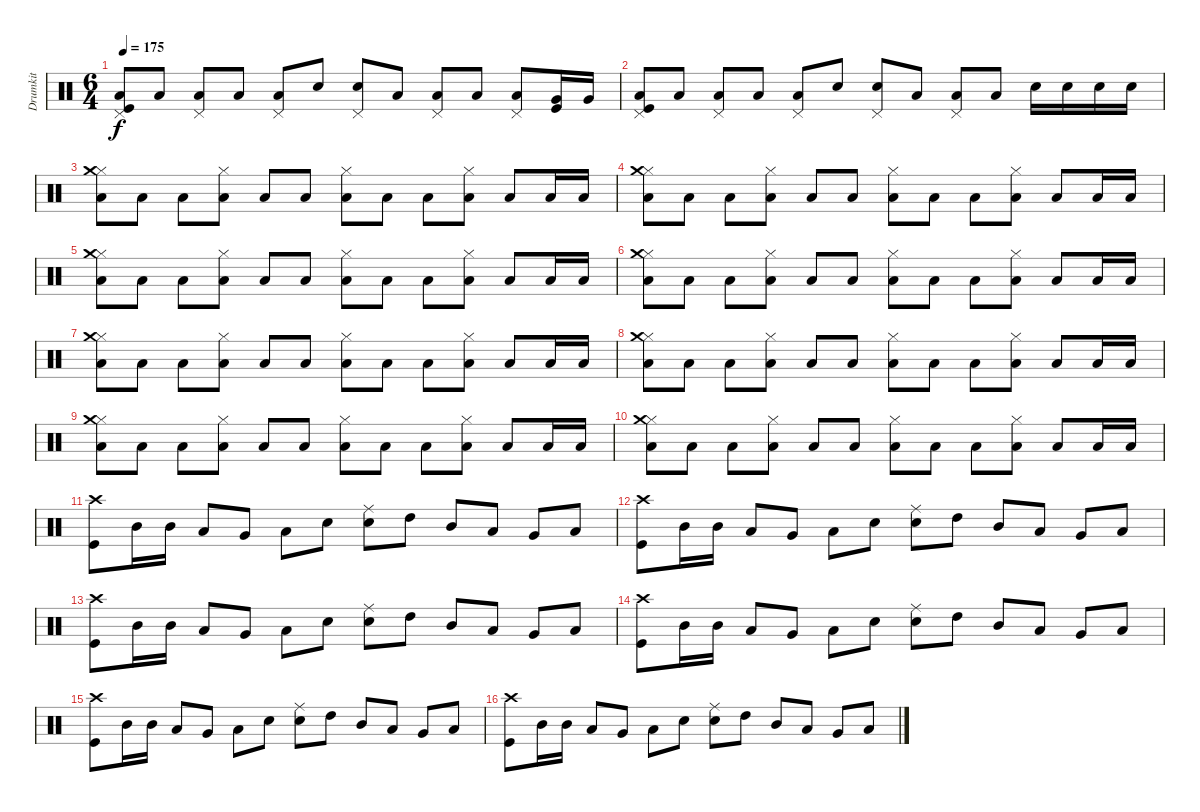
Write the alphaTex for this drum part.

\track ("Drumkit" "Drumkit") {instrument percussion}
\staff {score}
\articulation defaults
\ts (6 4)
\tempo 175
\clef neutral
\ks c
("Low Floor Tom (hit)" "Kick (hit)" "Pedal Hi-Hat (hit)").8{dy f} "Low Floor Tom (hit)".8 ("Low Floor Tom (hit)" "Pedal Hi-Hat (hit)").8 "Low Floor Tom (hit)".8 ("Low Floor Tom (hit)" "Pedal Hi-Hat (hit)").8 "Snare (hit) 2".8 ("Snare (hit) 2" "Pedal Hi-Hat (hit)").8 "Low Floor Tom (hit)".8 ("Low Floor Tom (hit)" "Pedal Hi-Hat (hit)").8 "Low Floor Tom (hit)".8 ("Low Floor Tom (hit)" "Pedal Hi-Hat (hit)").8 ("Very Low Tom (hit)" "Kick (hit)").16 "Very Low Tom (hit)".16 |
("Low Floor Tom (hit)" "Kick (hit)" "Pedal Hi-Hat (hit)").8 "Low Floor Tom (hit)".8 ("Low Floor Tom (hit)" "Pedal Hi-Hat (hit)").8 "Low Floor Tom (hit)".8 ("Low Floor Tom (hit)" "Pedal Hi-Hat (hit)").8 "Snare (hit) 2".8 ("Snare (hit) 2" "Pedal Hi-Hat (hit)").8 "Low Floor Tom (hit)".8 ("Low Floor Tom (hit)" "Pedal Hi-Hat (hit)").8 "Low Floor Tom (hit)".8 "Snare (hit) 2".16 "Snare (hit) 2".16 "Snare (hit) 2".16 "Snare (hit) 2".16 |
("Low Floor Tom (hit)" "Hi-Hat (closed)" "Crash medium (hit)").8 "Low Floor Tom (hit)".8 "Low Floor Tom (hit)".8 ("Low Floor Tom (hit)" "Hi-Hat (closed)").8 "Low Floor Tom (hit)".8 "Low Floor Tom (hit)".8 ("Low Floor Tom (hit)" "Hi-Hat (closed)").8 "Low Floor Tom (hit)".8 "Low Floor Tom (hit)".8 ("Low Floor Tom (hit)" "Hi-Hat (closed)").8 "Low Floor Tom (hit)".8 "Low Floor Tom (hit)".16 "Low Floor Tom (hit)".16 |
("Low Floor Tom (hit)" "Hi-Hat (closed)" "Crash medium (hit)").8 "Low Floor Tom (hit)".8 "Low Floor Tom (hit)".8 ("Low Floor Tom (hit)" "Hi-Hat (closed)").8 "Low Floor Tom (hit)".8 "Low Floor Tom (hit)".8 ("Low Floor Tom (hit)" "Hi-Hat (closed)").8 "Low Floor Tom (hit)".8 "Low Floor Tom (hit)".8 ("Low Floor Tom (hit)" "Hi-Hat (closed)").8 "Low Floor Tom (hit)".8 "Low Floor Tom (hit)".16 "Low Floor Tom (hit)".16 |
("Low Floor Tom (hit)" "Hi-Hat (closed)" "Crash medium (hit)").8 "Low Floor Tom (hit)".8 "Low Floor Tom (hit)".8 ("Low Floor Tom (hit)" "Hi-Hat (closed)").8 "Low Floor Tom (hit)".8 "Low Floor Tom (hit)".8 ("Low Floor Tom (hit)" "Hi-Hat (closed)").8 "Low Floor Tom (hit)".8 "Low Floor Tom (hit)".8 ("Low Floor Tom (hit)" "Hi-Hat (closed)").8 "Low Floor Tom (hit)".8 "Low Floor Tom (hit)".16 "Low Floor Tom (hit)".16 |
("Low Floor Tom (hit)" "Hi-Hat (closed)" "Crash medium (hit)").8 "Low Floor Tom (hit)".8 "Low Floor Tom (hit)".8 ("Low Floor Tom (hit)" "Hi-Hat (closed)").8 "Low Floor Tom (hit)".8 "Low Floor Tom (hit)".8 ("Low Floor Tom (hit)" "Hi-Hat (closed)").8 "Low Floor Tom (hit)".8 "Low Floor Tom (hit)".8 ("Low Floor Tom (hit)" "Hi-Hat (closed)").8 "Low Floor Tom (hit)".8 "Low Floor Tom (hit)".16 "Low Floor Tom (hit)".16 |
("Low Floor Tom (hit)" "Hi-Hat (closed)" "Crash medium (hit)").8 "Low Floor Tom (hit)".8 "Low Floor Tom (hit)".8 ("Low Floor Tom (hit)" "Hi-Hat (closed)").8 "Low Floor Tom (hit)".8 "Low Floor Tom (hit)".8 ("Low Floor Tom (hit)" "Hi-Hat (closed)").8 "Low Floor Tom (hit)".8 "Low Floor Tom (hit)".8 ("Low Floor Tom (hit)" "Hi-Hat (closed)").8 "Low Floor Tom (hit)".8 "Low Floor Tom (hit)".16 "Low Floor Tom (hit)".16 |
("Low Floor Tom (hit)" "Hi-Hat (closed)" "Crash medium (hit)").8 "Low Floor Tom (hit)".8 "Low Floor Tom (hit)".8 ("Low Floor Tom (hit)" "Hi-Hat (closed)").8 "Low Floor Tom (hit)".8 "Low Floor Tom (hit)".8 ("Low Floor Tom (hit)" "Hi-Hat (closed)").8 "Low Floor Tom (hit)".8 "Low Floor Tom (hit)".8 ("Low Floor Tom (hit)" "Hi-Hat (closed)").8 "Low Floor Tom (hit)".8 "Low Floor Tom (hit)".16 "Low Floor Tom (hit)".16 |
("Low Floor Tom (hit)" "Hi-Hat (closed)" "Crash medium (hit)").8 "Low Floor Tom (hit)".8 "Low Floor Tom (hit)".8 ("Low Floor Tom (hit)" "Hi-Hat (closed)").8 "Low Floor Tom (hit)".8 "Low Floor Tom (hit)".8 ("Low Floor Tom (hit)" "Hi-Hat (closed)").8 "Low Floor Tom (hit)".8 "Low Floor Tom (hit)".8 ("Low Floor Tom (hit)" "Hi-Hat (closed)").8 "Low Floor Tom (hit)".8 "Low Floor Tom (hit)".16 "Low Floor Tom (hit)".16 |
("Low Floor Tom (hit)" "Hi-Hat (closed)" "Crash medium (hit)").8 "Low Floor Tom (hit)".8 "Low Floor Tom (hit)".8 ("Low Floor Tom (hit)" "Hi-Hat (closed)").8 "Low Floor Tom (hit)".8 "Low Floor Tom (hit)".8 ("Low Floor Tom (hit)" "Hi-Hat (closed)").8 "Low Floor Tom (hit)".8 "Low Floor Tom (hit)".8 ("Low Floor Tom (hit)" "Hi-Hat (closed)").8 "Low Floor Tom (hit)".8 "Low Floor Tom (hit)".16 "Low Floor Tom (hit)".16 |
("Kick (hit)" "Crash high (hit)").8 "Mid Tom (hit)".16 "Mid Tom (hit)".16 "Low Tom (hit)".8 "Very Low Tom (hit)".8 "Low Floor Tom (hit)".8 "Snare (hit) 2".8 ("Snare (hit) 2" "Ride (middle)").8 "High Tom (hit)".8 "Mid Tom (hit)".8 "Low Tom (hit)".8 "Very Low Tom (hit)".8 "Low Floor Tom (hit)".8 |
("Kick (hit)" "Crash high (hit)").8 "Mid Tom (hit)".16 "Mid Tom (hit)".16 "Low Tom (hit)".8 "Very Low Tom (hit)".8 "Low Floor Tom (hit)".8 "Snare (hit) 2".8 ("Snare (hit) 2" "Ride (middle)").8 "High Tom (hit)".8 "Mid Tom (hit)".8 "Low Tom (hit)".8 "Very Low Tom (hit)".8 "Low Floor Tom (hit)".8 |
("Kick (hit)" "Crash high (hit)").8 "Mid Tom (hit)".16 "Mid Tom (hit)".16 "Low Tom (hit)".8 "Very Low Tom (hit)".8 "Low Floor Tom (hit)".8 "Snare (hit) 2".8 ("Snare (hit) 2" "Ride (middle)").8 "High Tom (hit)".8 "Mid Tom (hit)".8 "Low Tom (hit)".8 "Very Low Tom (hit)".8 "Low Floor Tom (hit)".8 |
("Kick (hit)" "Crash high (hit)").8 "Mid Tom (hit)".16 "Mid Tom (hit)".16 "Low Tom (hit)".8 "Very Low Tom (hit)".8 "Low Floor Tom (hit)".8 "Snare (hit) 2".8 ("Snare (hit) 2" "Ride (middle)").8 "High Tom (hit)".8 "Mid Tom (hit)".8 "Low Tom (hit)".8 "Very Low Tom (hit)".8 "Low Floor Tom (hit)".8 |
("Kick (hit)" "Crash high (hit)").8 "Mid Tom (hit)".16 "Mid Tom (hit)".16 "Low Tom (hit)".8 "Very Low Tom (hit)".8 "Low Floor Tom (hit)".8 "Snare (hit) 2".8 ("Snare (hit) 2" "Ride (middle)").8 "High Tom (hit)".8 "Mid Tom (hit)".8 "Low Tom (hit)".8 "Very Low Tom (hit)".8 "Low Floor Tom (hit)".8 |
("Kick (hit)" "Crash high (hit)").8 "Mid Tom (hit)".16 "Mid Tom (hit)".16 "Low Tom (hit)".8 "Very Low Tom (hit)".8 "Low Floor Tom (hit)".8 "Snare (hit) 2".8 ("Snare (hit) 2" "Ride (middle)").8 "High Tom (hit)".8 "Mid Tom (hit)".8 "Low Tom (hit)".8 "Very Low Tom (hit)".8 "Low Floor Tom (hit)".8
